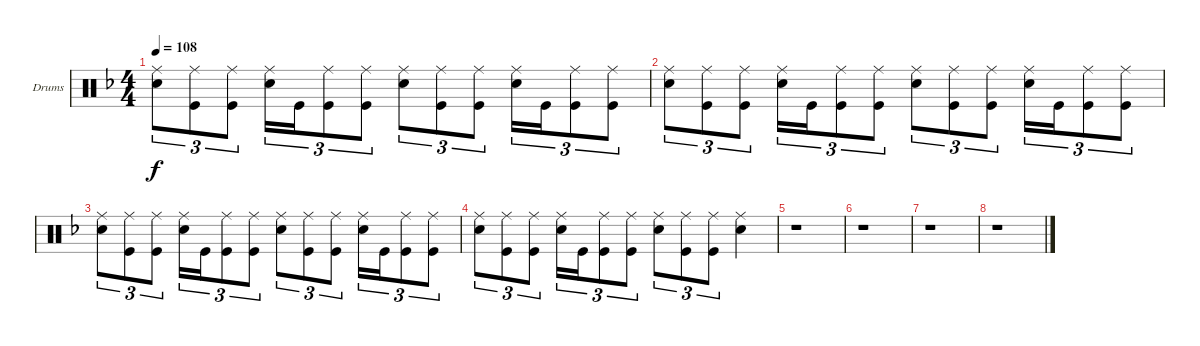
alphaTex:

\defaultSystemsLayout 4
\bracketExtendMode groupsimilarinstruments
\firstSystemTrackNameOrientation horizontal
\otherSystemsTrackNameOrientation horizontal
\track ("Drumkit" "Drums") {instrument percussion}
\staff {score}
\articulation defaults
\ts (4 4)
\tempo 108
\clef neutral
\ks f
("Snare (hit) 2" "Ride (middle)").8{tu (3 2) dy f} ("Kick (hit)" "Ride (middle)").8{tu (3 2)} ("Kick (hit)" "Ride (middle)").8{tu (3 2)} ("Snare (hit) 2" "Ride (middle)").16{tu (3 2)} "Kick (hit)".16{tu (3 2)} ("Kick (hit)" "Ride (middle)").8{tu (3 2)} ("Kick (hit)" "Ride (middle)").8{tu (3 2)} ("Snare (hit) 2" "Ride (middle)").8{tu (3 2)} ("Kick (hit)" "Ride (middle)").8{tu (3 2)} ("Kick (hit)" "Ride (middle)").8{tu (3 2)} ("Snare (hit) 2" "Ride (middle)").16{tu (3 2)} "Kick (hit)".16{tu (3 2)} ("Kick (hit)" "Ride (middle)").8{tu (3 2)} ("Kick (hit)" "Ride (middle)").8{tu (3 2)} |
("Snare (hit) 2" "Ride (middle)").8{tu (3 2)} ("Kick (hit)" "Ride (middle)").8{tu (3 2)} ("Kick (hit)" "Ride (middle)").8{tu (3 2)} ("Snare (hit) 2" "Ride (middle)").16{tu (3 2)} "Kick (hit)".16{tu (3 2)} ("Kick (hit)" "Ride (middle)").8{tu (3 2)} ("Kick (hit)" "Ride (middle)").8{tu (3 2)} ("Snare (hit) 2" "Ride (middle)").8{tu (3 2)} ("Kick (hit)" "Ride (middle)").8{tu (3 2)} ("Kick (hit)" "Ride (middle)").8{tu (3 2)} ("Snare (hit) 2" "Ride (middle)").16{tu (3 2)} "Kick (hit)".16{tu (3 2)} ("Kick (hit)" "Ride (middle)").8{tu (3 2)} ("Kick (hit)" "Ride (middle)").8{tu (3 2)} |
("Snare (hit) 2" "Ride (middle)").8{tu (3 2)} ("Kick (hit)" "Ride (middle)").8{tu (3 2)} ("Kick (hit)" "Ride (middle)").8{tu (3 2)} ("Snare (hit) 2" "Ride (middle)").16{tu (3 2)} "Kick (hit)".16{tu (3 2)} ("Kick (hit)" "Ride (middle)").8{tu (3 2)} ("Kick (hit)" "Ride (middle)").8{tu (3 2)} ("Snare (hit) 2" "Ride (middle)").8{tu (3 2)} ("Kick (hit)" "Ride (middle)").8{tu (3 2)} ("Kick (hit)" "Ride (middle)").8{tu (3 2)} ("Snare (hit) 2" "Ride (middle)").16{tu (3 2)} "Kick (hit)".16{tu (3 2)} ("Kick (hit)" "Ride (middle)").8{tu (3 2)} ("Kick (hit)" "Ride (middle)").8{tu (3 2)} |
("Snare (hit) 2" "Ride (middle)").8{tu (3 2)} ("Kick (hit)" "Ride (middle)").8{tu (3 2)} ("Kick (hit)" "Ride (middle)").8{tu (3 2)} ("Snare (hit) 2" "Ride (middle)").16{tu (3 2)} "Kick (hit)".16{tu (3 2)} ("Kick (hit)" "Ride (middle)").8{tu (3 2)} ("Kick (hit)" "Ride (middle)").8{tu (3 2)} ("Snare (hit) 2" "Ride (middle)").8{tu (3 2)} ("Kick (hit)" "Ride (middle)").8{tu (3 2)} ("Kick (hit)" "Ride (middle)").8{tu (3 2)} ("Snare (hit) 2" "Ride (middle)").4 |
r.1 |
r.1 |
r.1 |
r.1
